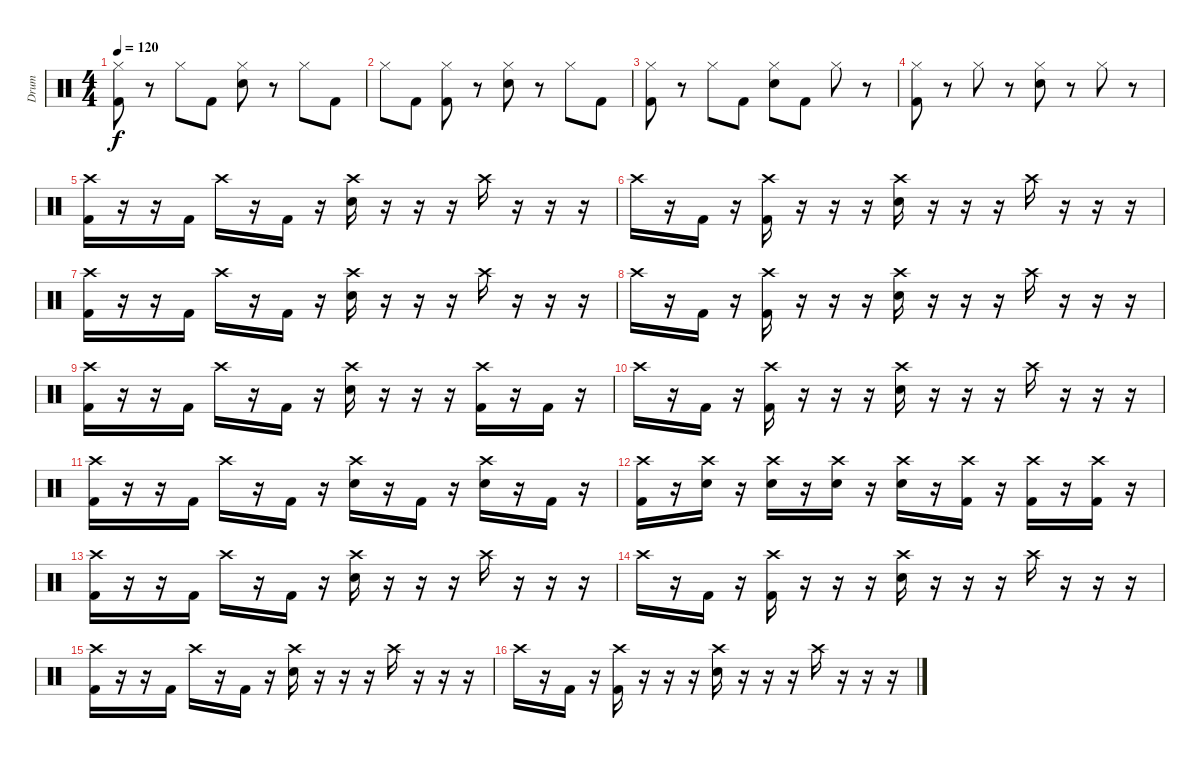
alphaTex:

\track ("Drum" "Drum") {instrument percussion}
\staff {score}
\articulation defaults
\ts (4 4)
\tempo 120
\clef neutral
\ks c
("Hi-Hat (closed)" "Kick (hit) 2").8{dy f} r.8 "Hi-Hat (closed)".8 "Kick (hit) 2".8 ("Hi-Hat (closed)" "Electric Snare (hit)").8 r.8 "Hi-Hat (closed)".8 "Kick (hit) 2".8 |
"Hi-Hat (closed)".8 "Kick (hit) 2".8 ("Hi-Hat (closed)" "Kick (hit) 2").8 r.8 ("Hi-Hat (closed)" "Electric Snare (hit)").8 r.8 "Hi-Hat (closed)".8 "Kick (hit) 2".8 |
("Hi-Hat (closed)" "Kick (hit) 2").8 r.8 "Hi-Hat (closed)".8 "Kick (hit) 2".8 ("Hi-Hat (closed)" "Electric Snare (hit)").8 "Kick (hit) 2".8 "Hi-Hat (closed)".8 r.8 |
("Hi-Hat (closed)" "Kick (hit) 2").8 r.8 "Hi-Hat (closed)".8 r.8 ("Hi-Hat (closed)" "Electric Snare (hit)").8 r.8 "Hi-Hat (closed)".8 r.8 |
("Crash high (hit)" "Kick (hit) 2").16 r.16 r.16 "Kick (hit) 2".16 "Crash high (hit)".16 r.16 "Kick (hit) 2".16 r.16 ("Crash high (hit)" "Electric Snare (hit)").16 r.16 r.16 r.16 "Crash high (hit)".16 r.16 r.16 r.16 |
"Crash high (hit)".16 r.16 "Kick (hit) 2".16 r.16 ("Crash high (hit)" "Kick (hit) 2").16 r.16 r.16 r.16 ("Crash high (hit)" "Electric Snare (hit)").16 r.16 r.16 r.16 "Crash high (hit)".16 r.16 r.16 r.16 |
("Crash high (hit)" "Kick (hit) 2").16 r.16 r.16 "Kick (hit) 2".16 "Crash high (hit)".16 r.16 "Kick (hit) 2".16 r.16 ("Crash high (hit)" "Electric Snare (hit)").16 r.16 r.16 r.16 "Crash high (hit)".16 r.16 r.16 r.16 |
"Crash high (hit)".16 r.16 "Kick (hit) 2".16 r.16 ("Crash high (hit)" "Kick (hit) 2").16 r.16 r.16 r.16 ("Crash high (hit)" "Electric Snare (hit)").16 r.16 r.16 r.16 "Crash high (hit)".16 r.16 r.16 r.16 |
("Crash high (hit)" "Kick (hit) 2").16 r.16 r.16 "Kick (hit) 2".16 "Crash high (hit)".16 r.16 "Kick (hit) 2".16 r.16 ("Crash high (hit)" "Electric Snare (hit)").16 r.16 r.16 r.16 ("Crash high (hit)" "Kick (hit) 2").16 r.16 "Kick (hit) 2".16 r.16 |
"Crash high (hit)".16 r.16 "Kick (hit) 2".16 r.16 ("Crash high (hit)" "Kick (hit) 2").16 r.16 r.16 r.16 ("Crash high (hit)" "Electric Snare (hit)").16 r.16 r.16 r.16 "Crash high (hit)".16 r.16 r.16 r.16 |
("Crash high (hit)" "Kick (hit) 2").16 r.16 r.16 "Kick (hit) 2".16 "Crash high (hit)".16 r.16 "Kick (hit) 2".16 r.16 ("Crash high (hit)" "Electric Snare (hit)").16 r.16 "Kick (hit) 2".16 r.16 ("Crash high (hit)" "Electric Snare (hit)").16 r.16 "Kick (hit) 2".16 r.16 |
("Crash high (hit)" "Kick (hit) 2").16 r.16 ("Crash high (hit)" "Electric Snare (hit)").16 r.16 ("Crash high (hit)" "Electric Snare (hit)").16 r.16 ("Crash high (hit)" "Electric Snare (hit)").16 r.16 ("Crash high (hit)" "Electric Snare (hit)").16 r.16 ("Crash high (hit)" "Kick (hit) 2").16 r.16 ("Crash high (hit)" "Kick (hit) 2").16 r.16 ("Crash high (hit)" "Kick (hit) 2").16 r.16 |
("Crash high (hit)" "Kick (hit) 2").16 r.16 r.16 "Kick (hit) 2".16 "Crash high (hit)".16 r.16 "Kick (hit) 2".16 r.16 ("Crash high (hit)" "Electric Snare (hit)").16 r.16 r.16 r.16 "Crash high (hit)".16 r.16 r.16 r.16 |
"Crash high (hit)".16 r.16 "Kick (hit) 2".16 r.16 ("Crash high (hit)" "Kick (hit) 2").16 r.16 r.16 r.16 ("Crash high (hit)" "Electric Snare (hit)").16 r.16 r.16 r.16 "Crash high (hit)".16 r.16 r.16 r.16 |
("Crash high (hit)" "Kick (hit) 2").16 r.16 r.16 "Kick (hit) 2".16 "Crash high (hit)".16 r.16 "Kick (hit) 2".16 r.16 ("Crash high (hit)" "Electric Snare (hit)").16 r.16 r.16 r.16 "Crash high (hit)".16 r.16 r.16 r.16 |
"Crash high (hit)".16 r.16 "Kick (hit) 2".16 r.16 ("Crash high (hit)" "Kick (hit) 2").16 r.16 r.16 r.16 ("Crash high (hit)" "Electric Snare (hit)").16 r.16 r.16 r.16 "Crash high (hit)".16 r.16 r.16 r.16
